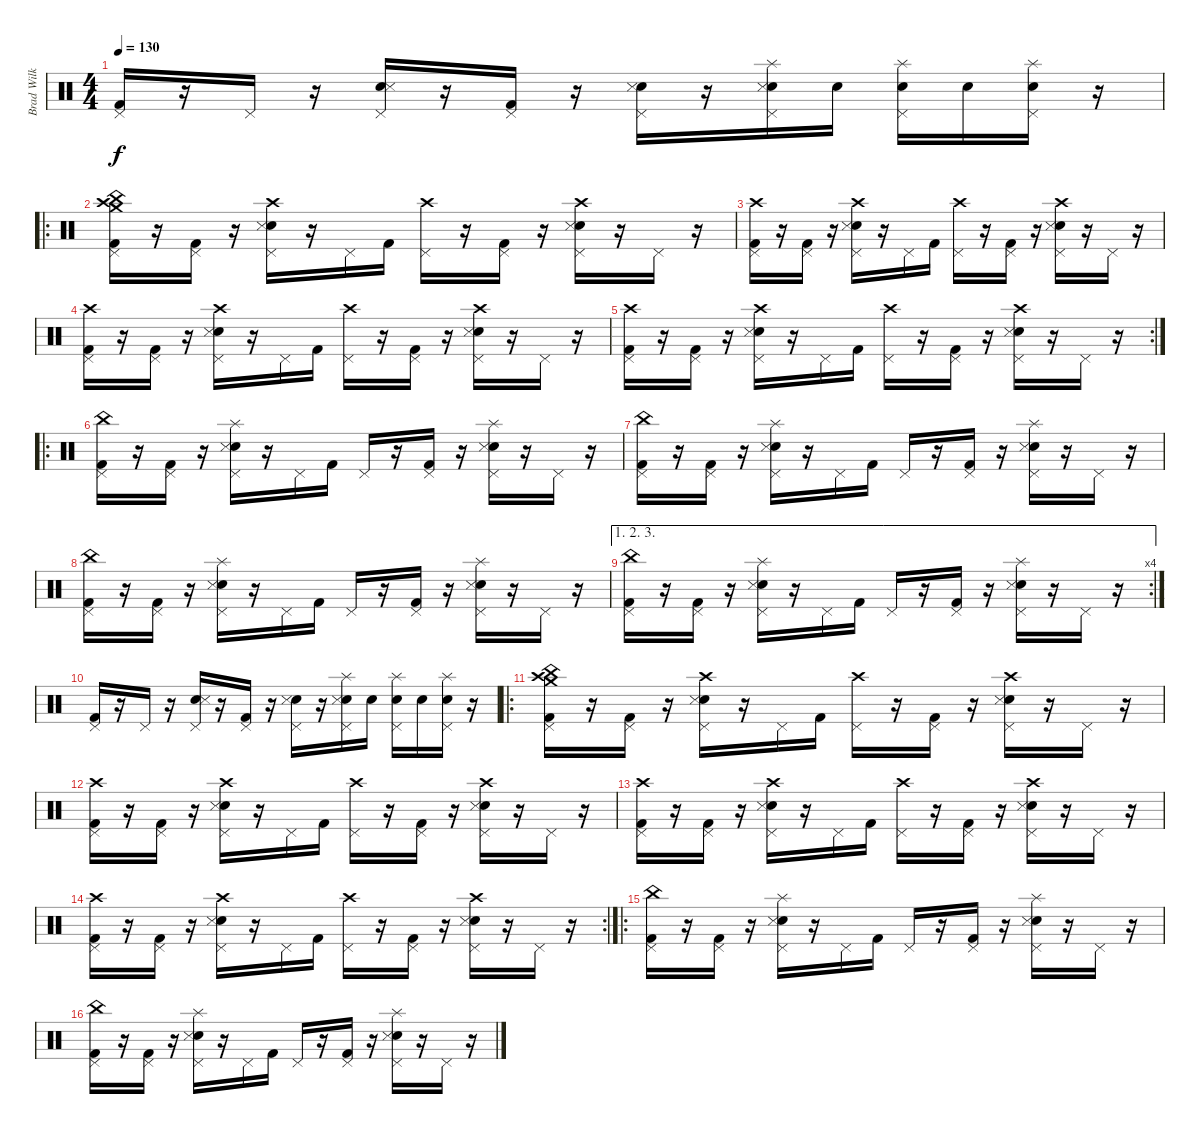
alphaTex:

\track ("Brad Wilk - Drums" "Brad Wilk ") {instrument percussion}
\staff {score}
\articulation defaults
\ts (4 4)
\tempo 130
\clef neutral
\ks c
("Kick (hit) 2" "Pedal Hi-Hat (hit)").16{dy f} r.16 "Pedal Hi-Hat (hit)".16 r.16 ("Snare (hit) 2" "Snare (side stick) 3" "Pedal Hi-Hat (hit)").16 r.16 ("Kick (hit) 2" "Pedal Hi-Hat (hit)").16 r.16 ("Snare (hit) 2" "Snare (side stick) 3" "Pedal Hi-Hat (hit)").16 r.16 ("Snare (hit) 2" "Snare (side stick) 3" "Splash (hit)" "Pedal Hi-Hat (hit)").16 "Snare (hit) 2".16 ("Snare (hit) 2" "Splash (hit)" "Pedal Hi-Hat (hit)").16 "Snare (hit) 2".16 ("Snare (hit) 2" "Splash (hit)" "Pedal Hi-Hat (hit)").16 r.16 |
\ro
("Kick (hit) 2" "Crash medium (hit)" "Crash high (hit)" "China (hit)" "Pedal Hi-Hat (hit)").16 r.16 ("Kick (hit) 2" "Pedal Hi-Hat (hit)").16 r.16 ("Snare (hit) 2" "Snare (side stick) 3" "Crash high (hit)" "Pedal Hi-Hat (hit)").16 r.16 "Pedal Hi-Hat (hit)".16 "Kick (hit) 2".16 ("Crash high (hit)" "Pedal Hi-Hat (hit)").16 r.16 ("Kick (hit) 2" "Pedal Hi-Hat (hit)").16 r.16 ("Snare (hit) 2" "Snare (side stick) 3" "Crash high (hit)" "Pedal Hi-Hat (hit)").16 r.16 "Pedal Hi-Hat (hit)".16 r.16 |
("Kick (hit) 2" "Crash high (hit)" "Pedal Hi-Hat (hit)").16 r.16 ("Kick (hit) 2" "Pedal Hi-Hat (hit)").16 r.16 ("Snare (hit) 2" "Snare (side stick) 3" "Crash high (hit)" "Pedal Hi-Hat (hit)").16 r.16 "Pedal Hi-Hat (hit)".16 "Kick (hit) 2".16 ("Crash high (hit)" "Pedal Hi-Hat (hit)").16 r.16 ("Kick (hit) 2" "Pedal Hi-Hat (hit)").16 r.16 ("Snare (hit) 2" "Snare (side stick) 3" "Crash high (hit)" "Pedal Hi-Hat (hit)").16 r.16 "Pedal Hi-Hat (hit)".16 r.16 |
("Kick (hit) 2" "Crash high (hit)" "Pedal Hi-Hat (hit)").16 r.16 ("Kick (hit) 2" "Pedal Hi-Hat (hit)").16 r.16 ("Snare (hit) 2" "Snare (side stick) 3" "Crash high (hit)" "Pedal Hi-Hat (hit)").16 r.16 "Pedal Hi-Hat (hit)".16 "Kick (hit) 2".16 ("Crash high (hit)" "Pedal Hi-Hat (hit)").16 r.16 ("Kick (hit) 2" "Pedal Hi-Hat (hit)").16 r.16 ("Snare (hit) 2" "Snare (side stick) 3" "Crash high (hit)" "Pedal Hi-Hat (hit)").16 r.16 "Pedal Hi-Hat (hit)".16 r.16 |
\rc 2
("Kick (hit) 2" "Crash high (hit)" "Pedal Hi-Hat (hit)").16 r.16 ("Kick (hit) 2" "Pedal Hi-Hat (hit)").16 r.16 ("Snare (hit) 2" "Snare (side stick) 3" "Crash high (hit)" "Pedal Hi-Hat (hit)").16 r.16 "Pedal Hi-Hat (hit)".16 "Kick (hit) 2".16 ("Crash high (hit)" "Pedal Hi-Hat (hit)").16 r.16 ("Kick (hit) 2" "Pedal Hi-Hat (hit)").16 r.16 ("Snare (hit) 2" "Snare (side stick) 3" "Crash high (hit)" "Pedal Hi-Hat (hit)").16 r.16 "Pedal Hi-Hat (hit)".16 r.16 |
\ro
("Kick (hit) 2" "China (hit)" "Pedal Hi-Hat (hit)").16 r.16 ("Kick (hit) 2" "Pedal Hi-Hat (hit)").16 r.16 ("Snare (hit) 2" "Snare (side stick) 3" "Splash (hit)" "Pedal Hi-Hat (hit)").16 r.16 "Pedal Hi-Hat (hit)".16 "Kick (hit) 2".16 "Pedal Hi-Hat (hit)".16 r.16 ("Kick (hit) 2" "Pedal Hi-Hat (hit)").16 r.16 ("Snare (hit) 2" "Snare (side stick) 3" "Splash (hit)" "Pedal Hi-Hat (hit)").16 r.16 "Pedal Hi-Hat (hit)".16 r.16 |
("Kick (hit) 2" "China (hit)" "Pedal Hi-Hat (hit)").16 r.16 ("Kick (hit) 2" "Pedal Hi-Hat (hit)").16 r.16 ("Snare (hit) 2" "Snare (side stick) 3" "Splash (hit)" "Pedal Hi-Hat (hit)").16 r.16 "Pedal Hi-Hat (hit)".16 "Kick (hit) 2".16 "Pedal Hi-Hat (hit)".16 r.16 ("Kick (hit) 2" "Pedal Hi-Hat (hit)").16 r.16 ("Snare (hit) 2" "Snare (side stick) 3" "Splash (hit)" "Pedal Hi-Hat (hit)").16 r.16 "Pedal Hi-Hat (hit)".16 r.16 |
("Kick (hit) 2" "China (hit)" "Pedal Hi-Hat (hit)").16 r.16 ("Kick (hit) 2" "Pedal Hi-Hat (hit)").16 r.16 ("Snare (hit) 2" "Snare (side stick) 3" "Splash (hit)" "Pedal Hi-Hat (hit)").16 r.16 "Pedal Hi-Hat (hit)".16 "Kick (hit) 2".16 "Pedal Hi-Hat (hit)".16 r.16 ("Kick (hit) 2" "Pedal Hi-Hat (hit)").16 r.16 ("Snare (hit) 2" "Snare (side stick) 3" "Splash (hit)" "Pedal Hi-Hat (hit)").16 r.16 "Pedal Hi-Hat (hit)".16 r.16 |
\ae (1 2 3)
\rc 4
("Kick (hit) 2" "China (hit)" "Pedal Hi-Hat (hit)").16 r.16 ("Kick (hit) 2" "Pedal Hi-Hat (hit)").16 r.16 ("Snare (hit) 2" "Snare (side stick) 3" "Splash (hit)" "Pedal Hi-Hat (hit)").16 r.16 "Pedal Hi-Hat (hit)".16 "Kick (hit) 2".16 "Pedal Hi-Hat (hit)".16 r.16 ("Kick (hit) 2" "Pedal Hi-Hat (hit)").16 r.16 ("Snare (hit) 2" "Snare (side stick) 3" "Splash (hit)" "Pedal Hi-Hat (hit)").16 r.16 "Pedal Hi-Hat (hit)".16 r.16 |
("Kick (hit) 2" "Pedal Hi-Hat (hit)").16 r.16 "Pedal Hi-Hat (hit)".16 r.16 ("Snare (hit) 2" "Snare (side stick) 3" "Pedal Hi-Hat (hit)").16 r.16 ("Kick (hit) 2" "Pedal Hi-Hat (hit)").16 r.16 ("Snare (hit) 2" "Snare (side stick) 3" "Pedal Hi-Hat (hit)").16 r.16 ("Snare (hit) 2" "Snare (side stick) 3" "Splash (hit)" "Pedal Hi-Hat (hit)").16 "Snare (hit) 2".16 ("Snare (hit) 2" "Splash (hit)" "Pedal Hi-Hat (hit)").16 "Snare (hit) 2".16 ("Snare (hit) 2" "Splash (hit)" "Pedal Hi-Hat (hit)").16 r.16 |
\ro
("Kick (hit) 2" "Crash medium (hit)" "Crash high (hit)" "China (hit)" "Pedal Hi-Hat (hit)").16 r.16 ("Kick (hit) 2" "Pedal Hi-Hat (hit)").16 r.16 ("Snare (hit) 2" "Snare (side stick) 3" "Crash high (hit)" "Pedal Hi-Hat (hit)").16 r.16 "Pedal Hi-Hat (hit)".16 "Kick (hit) 2".16 ("Crash high (hit)" "Pedal Hi-Hat (hit)").16 r.16 ("Kick (hit) 2" "Pedal Hi-Hat (hit)").16 r.16 ("Snare (hit) 2" "Snare (side stick) 3" "Crash high (hit)" "Pedal Hi-Hat (hit)").16 r.16 "Pedal Hi-Hat (hit)".16 r.16 |
("Kick (hit) 2" "Crash high (hit)" "Pedal Hi-Hat (hit)").16 r.16 ("Kick (hit) 2" "Pedal Hi-Hat (hit)").16 r.16 ("Snare (hit) 2" "Snare (side stick) 3" "Crash high (hit)" "Pedal Hi-Hat (hit)").16 r.16 "Pedal Hi-Hat (hit)".16 "Kick (hit) 2".16 ("Crash high (hit)" "Pedal Hi-Hat (hit)").16 r.16 ("Kick (hit) 2" "Pedal Hi-Hat (hit)").16 r.16 ("Snare (hit) 2" "Snare (side stick) 3" "Crash high (hit)" "Pedal Hi-Hat (hit)").16 r.16 "Pedal Hi-Hat (hit)".16 r.16 |
("Kick (hit) 2" "Crash high (hit)" "Pedal Hi-Hat (hit)").16 r.16 ("Kick (hit) 2" "Pedal Hi-Hat (hit)").16 r.16 ("Snare (hit) 2" "Snare (side stick) 3" "Crash high (hit)" "Pedal Hi-Hat (hit)").16 r.16 "Pedal Hi-Hat (hit)".16 "Kick (hit) 2".16 ("Crash high (hit)" "Pedal Hi-Hat (hit)").16 r.16 ("Kick (hit) 2" "Pedal Hi-Hat (hit)").16 r.16 ("Snare (hit) 2" "Snare (side stick) 3" "Crash high (hit)" "Pedal Hi-Hat (hit)").16 r.16 "Pedal Hi-Hat (hit)".16 r.16 |
\rc 2
("Kick (hit) 2" "Crash high (hit)" "Pedal Hi-Hat (hit)").16 r.16 ("Kick (hit) 2" "Pedal Hi-Hat (hit)").16 r.16 ("Snare (hit) 2" "Snare (side stick) 3" "Crash high (hit)" "Pedal Hi-Hat (hit)").16 r.16 "Pedal Hi-Hat (hit)".16 "Kick (hit) 2".16 ("Crash high (hit)" "Pedal Hi-Hat (hit)").16 r.16 ("Kick (hit) 2" "Pedal Hi-Hat (hit)").16 r.16 ("Snare (hit) 2" "Snare (side stick) 3" "Crash high (hit)" "Pedal Hi-Hat (hit)").16 r.16 "Pedal Hi-Hat (hit)".16 r.16 |
\ro
("Kick (hit) 2" "China (hit)" "Pedal Hi-Hat (hit)").16 r.16 ("Kick (hit) 2" "Pedal Hi-Hat (hit)").16 r.16 ("Snare (hit) 2" "Snare (side stick) 3" "Splash (hit)" "Pedal Hi-Hat (hit)").16 r.16 "Pedal Hi-Hat (hit)".16 "Kick (hit) 2".16 "Pedal Hi-Hat (hit)".16 r.16 ("Kick (hit) 2" "Pedal Hi-Hat (hit)").16 r.16 ("Snare (hit) 2" "Snare (side stick) 3" "Splash (hit)" "Pedal Hi-Hat (hit)").16 r.16 "Pedal Hi-Hat (hit)".16 r.16 |
("Kick (hit) 2" "China (hit)" "Pedal Hi-Hat (hit)").16 r.16 ("Kick (hit) 2" "Pedal Hi-Hat (hit)").16 r.16 ("Snare (hit) 2" "Snare (side stick) 3" "Splash (hit)" "Pedal Hi-Hat (hit)").16 r.16 "Pedal Hi-Hat (hit)".16 "Kick (hit) 2".16 "Pedal Hi-Hat (hit)".16 r.16 ("Kick (hit) 2" "Pedal Hi-Hat (hit)").16 r.16 ("Snare (hit) 2" "Snare (side stick) 3" "Splash (hit)" "Pedal Hi-Hat (hit)").16 r.16 "Pedal Hi-Hat (hit)".16 r.16
